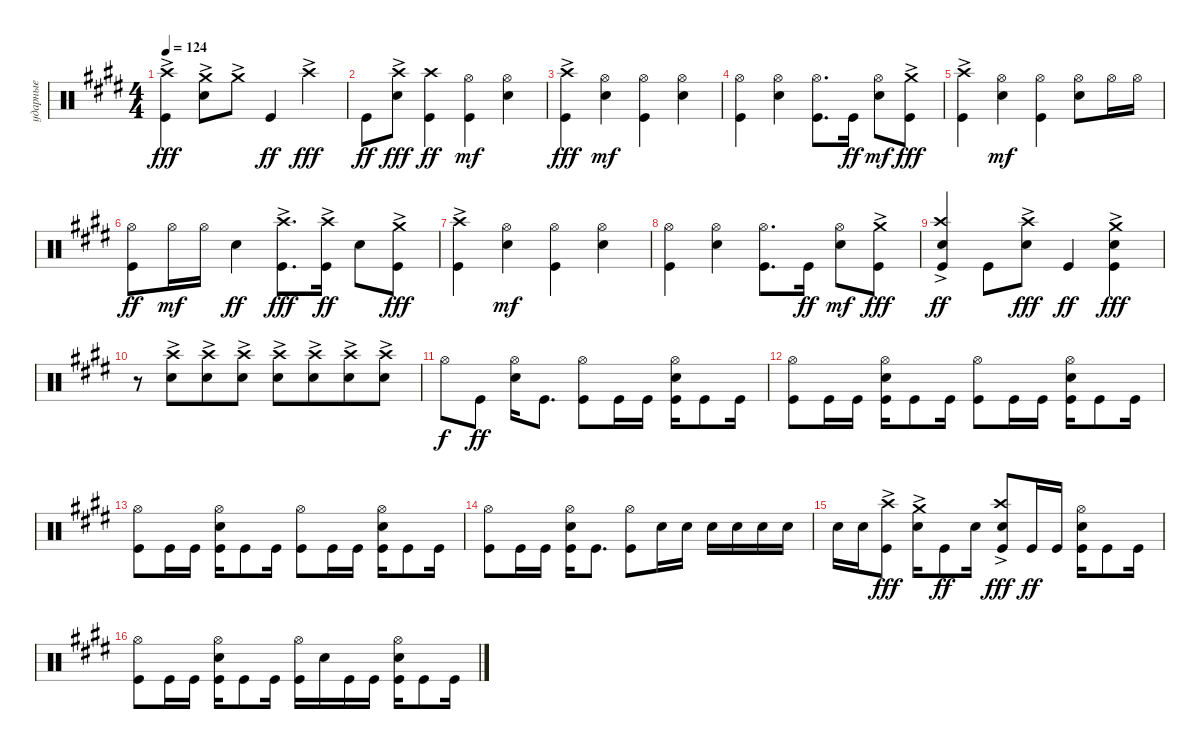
\track ("ударные" "ударные") {instrument percussion}
\staff {score}
\articulation defaults
\ts (4 4)
\tempo 124
\clef neutral
\ks e
("Kick (hit)" "Crash high (hit)"{ac}).4{dy fff} ("Snare (hit) 2" "Crash medium (hit)"{ac}).8 "Crash medium (hit)"{ac}.8 "Kick (hit)".4{dy ff} "Crash high (hit)"{ac}.4{dy fff} |
"Kick (hit)".8{dy ff} ("Snare (hit) 2" "Crash high (hit)"{ac}).8{dy fff} ("Crash high (hit)" "Kick (hit)").4{dy ff} ("Kick (hit)" "Hi-Hat (open)").4{dy mf} ("Snare (hit) 2" "Hi-Hat (open)").4 |
("Kick (hit)" "Crash high (hit)"{ac}).4{dy fff} ("Snare (hit) 2" "Hi-Hat (open)").4{dy mf} ("Kick (hit)" "Hi-Hat (open)").4 ("Snare (hit) 2" "Hi-Hat (open)").4 |
("Kick (hit)" "Hi-Hat (open)").4 ("Snare (hit) 2" "Hi-Hat (open)").4 ("Kick (hit)" "Hi-Hat (open)").8{d} "Kick (hit)".16{dy ff} ("Snare (hit) 2" "Hi-Hat (open)").8{dy mf} ("Kick (hit)" "Crash medium (hit)"{ac}).8{dy fff} |
("Kick (hit)" "Crash high (hit)"{ac}).4 ("Snare (hit) 2" "Hi-Hat (open)").4{dy mf} ("Kick (hit)" "Hi-Hat (open)").4 ("Snare (hit) 2" "Hi-Hat (open)").8 "Hi-Hat (open)".16 "Hi-Hat (open)".16 |
("Kick (hit)" "Hi-Hat (open)").8{dy ff} "Hi-Hat (open)".16{dy mf} "Hi-Hat (open)".16 "Snare (hit) 2".4{dy ff} ("Kick (hit)" "Crash high (hit)"{ac}).8{d dy fff} ("Crash high (hit)"{ac} "Kick (hit)").16{dy ff} "Snare (hit) 2".8 ("Kick (hit)" "Crash medium (hit)"{ac}).8{dy fff} |
("Kick (hit)" "Crash high (hit)"{ac}).4 ("Snare (hit) 2" "Hi-Hat (open)").4{dy mf} ("Kick (hit)" "Hi-Hat (open)").4 ("Snare (hit) 2" "Hi-Hat (open)").4 |
("Kick (hit)" "Hi-Hat (open)").4 ("Snare (hit) 2" "Hi-Hat (open)").4 ("Kick (hit)" "Hi-Hat (open)").8{d} "Kick (hit)".16{dy ff} ("Snare (hit) 2" "Hi-Hat (open)").8{dy mf} ("Kick (hit)" "Crash medium (hit)"{ac}).8{dy fff} |
("Kick (hit)" "Crash high (hit)"{ac} "Snare (hit) 2").4{dy ff} "Kick (hit)".8 ("Snare (hit) 2" "Crash high (hit)"{ac}).8{dy fff} "Kick (hit)".4{dy ff} ("Kick (hit)" "Snare (hit) 2" "Crash medium (hit)"{ac}).4{dy fff} |
r.8 ("Snare (hit) 2" "Crash high (hit)"{ac}).8{beam merge} ("Snare (hit) 2" "Crash high (hit)"{ac}).8 ("Snare (hit) 2" "Crash high (hit)"{ac}).8 ("Snare (hit) 2" "Crash high (hit)"{ac}).8 ("Snare (hit) 2" "Crash high (hit)"{ac}).8{beam merge} ("Snare (hit) 2" "Crash high (hit)"{ac}).8 ("Snare (hit) 2" "Crash high (hit)"{ac}).8 |
"Hi-Hat (open)".8{dy f} "Kick (hit)".8{dy ff} ("Hi-Hat (open)" "Snare (hit) 2").16 "Kick (hit)".8{d} ("Hi-Hat (open)" "Kick (hit)").8 "Kick (hit)".16 "Kick (hit)".16 ("Hi-Hat (open)" "Snare (hit) 2" "Kick (hit)").16 "Kick (hit)".8 "Kick (hit)".16 |
("Hi-Hat (open)" "Kick (hit)").8 "Kick (hit)".16 "Kick (hit)".16 ("Hi-Hat (open)" "Snare (hit) 2" "Kick (hit)").16 "Kick (hit)".8 "Kick (hit)".16 ("Hi-Hat (open)" "Kick (hit)").8 "Kick (hit)".16 "Kick (hit)".16 ("Hi-Hat (open)" "Snare (hit) 2" "Kick (hit)").16 "Kick (hit)".8 "Kick (hit)".16 |
("Hi-Hat (open)" "Kick (hit)").8 "Kick (hit)".16 "Kick (hit)".16 ("Hi-Hat (open)" "Snare (hit) 2" "Kick (hit)").16 "Kick (hit)".8 "Kick (hit)".16 ("Hi-Hat (open)" "Kick (hit)").8 "Kick (hit)".16 "Kick (hit)".16 ("Hi-Hat (open)" "Snare (hit) 2" "Kick (hit)").16 "Kick (hit)".8 "Kick (hit)".16 |
("Hi-Hat (open)" "Kick (hit)").8 "Kick (hit)".16 "Kick (hit)".16 ("Hi-Hat (open)" "Snare (hit) 2" "Kick (hit)").16 "Kick (hit)".8{d} ("Kick (hit)" "Hi-Hat (open)").8 "Snare (hit) 2".16 "Snare (hit) 2".16 "Snare (hit) 2".16 "Snare (hit) 2".16 "Snare (hit) 2".16 "Snare (hit) 2".16 |
"Snare (hit) 2".16 "Snare (hit) 2".16 ("Kick (hit)" "Crash high (hit)"{ac}).8{dy fff} ("Snare (hit) 2" "Crash medium (hit)"{ac}).16 "Kick (hit)".8{dy ff} "Snare (hit) 2".16 ("Kick (hit)" "Snare (hit) 2" "Crash high (hit)"{ac}).8{dy fff} "Kick (hit)".16{dy ff} "Kick (hit)".16 ("Hi-Hat (open)" "Snare (hit) 2" "Kick (hit)").16 "Kick (hit)".8 "Kick (hit)".16 |
("Hi-Hat (open)" "Kick (hit)").8 "Kick (hit)".16 "Kick (hit)".16 ("Hi-Hat (open)" "Snare (hit) 2" "Kick (hit)").16 "Kick (hit)".8 "Kick (hit)".16 ("Kick (hit)" "Hi-Hat (open)").16 "Snare (hit) 2".16 "Kick (hit)".16 "Kick (hit)".16 ("Hi-Hat (open)" "Snare (hit) 2" "Kick (hit)").16 "Kick (hit)".8 "Kick (hit)".16
